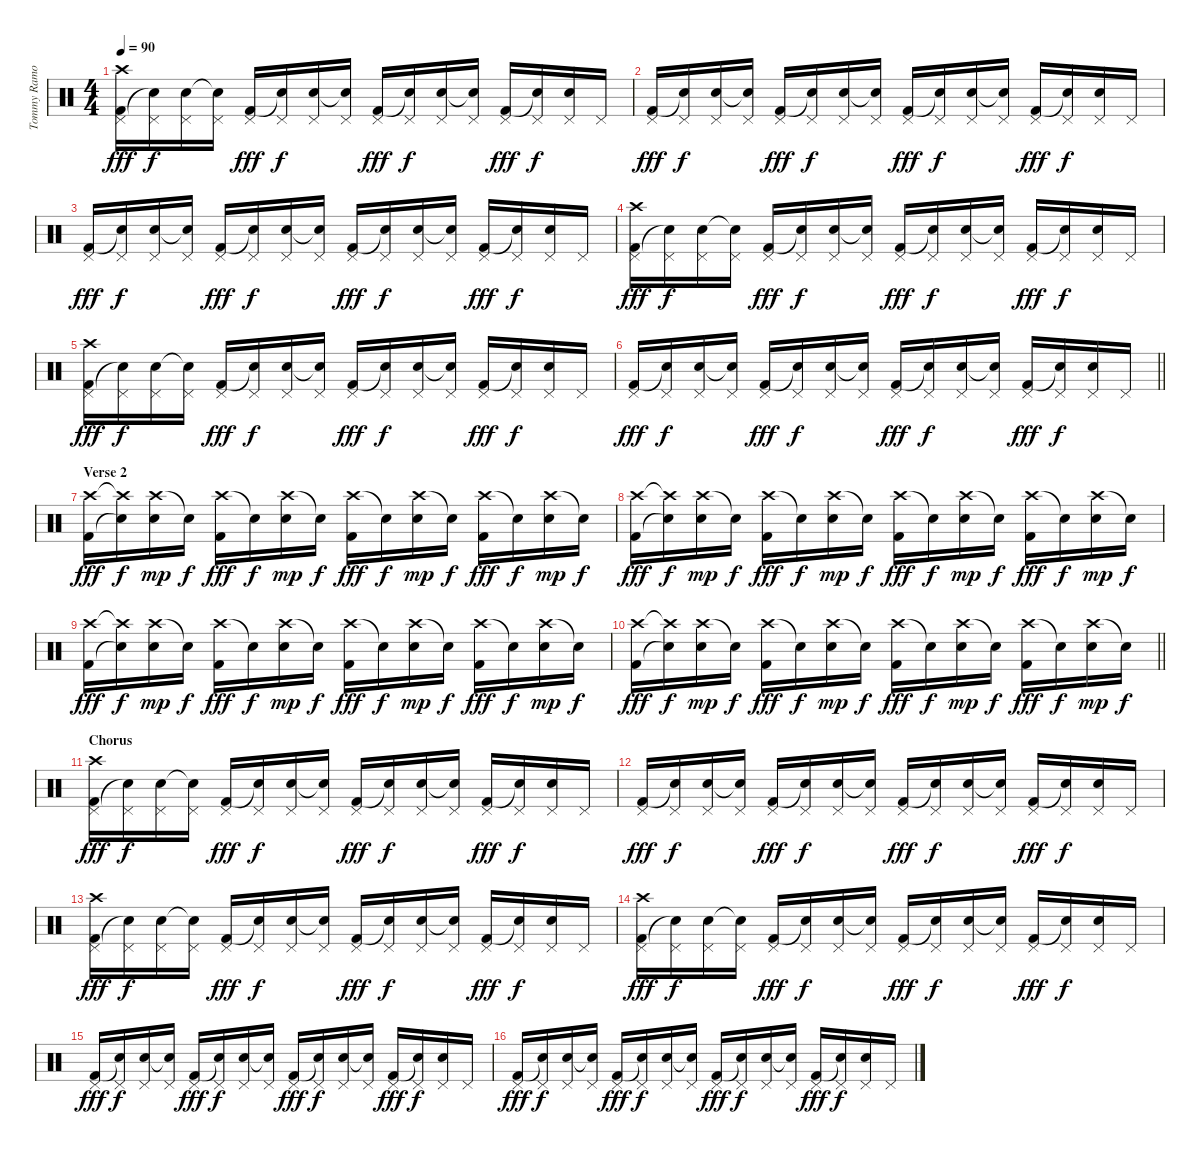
\track ("Tommy Ramone - Drums" "Tommy Ramo") {instrument percussion}
\staff {score}
\articulation defaults
\ts (4 4)
\tempo 90
\clef neutral
\ks c
("Crash high (hit)" "Pedal Hi-Hat (hit)" "Kick (hit) 2").16{dy fff} ("Pedal Hi-Hat (hit)" "Snare (hit)"{t}).16{dy f} ("Pedal Hi-Hat (hit)" "Electric Snare (hit)").16 ("Pedal Hi-Hat (hit)" "Snare (hit)"{t}).16 ("Pedal Hi-Hat (hit)" "Kick (hit) 2").16{dy fff} ("Pedal Hi-Hat (hit)" "Snare (hit)"{t}).16{dy f} ("Pedal Hi-Hat (hit)" "Electric Snare (hit)").16 ("Pedal Hi-Hat (hit)" "Snare (hit)"{t}).16 ("Pedal Hi-Hat (hit)" "Kick (hit) 2").16{dy fff} ("Pedal Hi-Hat (hit)" "Snare (hit)"{t}).16{dy f} ("Pedal Hi-Hat (hit)" "Electric Snare (hit)").16 ("Pedal Hi-Hat (hit)" "Snare (hit)"{t}).16 ("Pedal Hi-Hat (hit)" "Kick (hit) 2").16{dy fff} ("Pedal Hi-Hat (hit)" "Snare (hit)"{t}).16{dy f} ("Pedal Hi-Hat (hit)" "Electric Snare (hit)").16 "Pedal Hi-Hat (hit)".16 |
("Pedal Hi-Hat (hit)" "Kick (hit) 2").16{dy fff} ("Pedal Hi-Hat (hit)" "Snare (hit)"{t}).16{dy f} ("Pedal Hi-Hat (hit)" "Electric Snare (hit)").16 ("Pedal Hi-Hat (hit)" "Snare (hit)"{t}).16 ("Pedal Hi-Hat (hit)" "Kick (hit) 2").16{dy fff} ("Pedal Hi-Hat (hit)" "Snare (hit)"{t}).16{dy f} ("Pedal Hi-Hat (hit)" "Electric Snare (hit)").16 ("Pedal Hi-Hat (hit)" "Snare (hit)"{t}).16 ("Pedal Hi-Hat (hit)" "Kick (hit) 2").16{dy fff} ("Pedal Hi-Hat (hit)" "Snare (hit)"{t}).16{dy f} ("Pedal Hi-Hat (hit)" "Electric Snare (hit)").16 ("Pedal Hi-Hat (hit)" "Snare (hit)"{t}).16 ("Pedal Hi-Hat (hit)" "Kick (hit) 2").16{dy fff} ("Pedal Hi-Hat (hit)" "Snare (hit)"{t}).16{dy f} ("Pedal Hi-Hat (hit)" "Electric Snare (hit)").16 "Pedal Hi-Hat (hit)".16 |
("Pedal Hi-Hat (hit)" "Kick (hit) 2").16{dy fff} ("Pedal Hi-Hat (hit)" "Snare (hit)"{t}).16{dy f} ("Pedal Hi-Hat (hit)" "Electric Snare (hit)").16 ("Pedal Hi-Hat (hit)" "Snare (hit)"{t}).16 ("Pedal Hi-Hat (hit)" "Kick (hit) 2").16{dy fff} ("Pedal Hi-Hat (hit)" "Snare (hit)"{t}).16{dy f} ("Pedal Hi-Hat (hit)" "Electric Snare (hit)").16 ("Pedal Hi-Hat (hit)" "Snare (hit)"{t}).16 ("Pedal Hi-Hat (hit)" "Kick (hit) 2").16{dy fff} ("Pedal Hi-Hat (hit)" "Snare (hit)"{t}).16{dy f} ("Pedal Hi-Hat (hit)" "Electric Snare (hit)").16 ("Pedal Hi-Hat (hit)" "Snare (hit)"{t}).16 ("Pedal Hi-Hat (hit)" "Kick (hit) 2").16{dy fff} ("Pedal Hi-Hat (hit)" "Snare (hit)"{t}).16{dy f} ("Pedal Hi-Hat (hit)" "Electric Snare (hit)").16 "Pedal Hi-Hat (hit)".16 |
("Crash high (hit)" "Pedal Hi-Hat (hit)" "Kick (hit) 2").16{dy fff} ("Pedal Hi-Hat (hit)" "Snare (hit)"{t}).16{dy f} ("Pedal Hi-Hat (hit)" "Electric Snare (hit)").16 ("Pedal Hi-Hat (hit)" "Snare (hit)"{t}).16 ("Pedal Hi-Hat (hit)" "Kick (hit) 2").16{dy fff} ("Pedal Hi-Hat (hit)" "Snare (hit)"{t}).16{dy f} ("Pedal Hi-Hat (hit)" "Electric Snare (hit)").16 ("Pedal Hi-Hat (hit)" "Snare (hit)"{t}).16 ("Pedal Hi-Hat (hit)" "Kick (hit) 2").16{dy fff} ("Pedal Hi-Hat (hit)" "Snare (hit)"{t}).16{dy f} ("Pedal Hi-Hat (hit)" "Electric Snare (hit)").16 ("Pedal Hi-Hat (hit)" "Snare (hit)"{t}).16 ("Pedal Hi-Hat (hit)" "Kick (hit) 2").16{dy fff} ("Pedal Hi-Hat (hit)" "Snare (hit)"{t}).16{dy f} ("Pedal Hi-Hat (hit)" "Electric Snare (hit)").16 "Pedal Hi-Hat (hit)".16 |
("Crash high (hit)" "Pedal Hi-Hat (hit)" "Kick (hit) 2").16{dy fff} ("Pedal Hi-Hat (hit)" "Snare (hit)"{t}).16{dy f} ("Pedal Hi-Hat (hit)" "Electric Snare (hit)").16 ("Pedal Hi-Hat (hit)" "Snare (hit)"{t}).16 ("Pedal Hi-Hat (hit)" "Kick (hit) 2").16{dy fff} ("Pedal Hi-Hat (hit)" "Snare (hit)"{t}).16{dy f} ("Pedal Hi-Hat (hit)" "Electric Snare (hit)").16 ("Pedal Hi-Hat (hit)" "Snare (hit)"{t}).16 ("Pedal Hi-Hat (hit)" "Kick (hit) 2").16{dy fff} ("Pedal Hi-Hat (hit)" "Snare (hit)"{t}).16{dy f} ("Pedal Hi-Hat (hit)" "Electric Snare (hit)").16 ("Pedal Hi-Hat (hit)" "Snare (hit)"{t}).16 ("Pedal Hi-Hat (hit)" "Kick (hit) 2").16{dy fff} ("Pedal Hi-Hat (hit)" "Snare (hit)"{t}).16{dy f} ("Pedal Hi-Hat (hit)" "Electric Snare (hit)").16 "Pedal Hi-Hat (hit)".16 |
\barLineRight lightlight
("Pedal Hi-Hat (hit)" "Kick (hit) 2").16{dy fff} ("Pedal Hi-Hat (hit)" "Snare (hit)"{t}).16{dy f} ("Pedal Hi-Hat (hit)" "Electric Snare (hit)").16 ("Pedal Hi-Hat (hit)" "Snare (hit)"{t}).16 ("Pedal Hi-Hat (hit)" "Kick (hit) 2").16{dy fff} ("Pedal Hi-Hat (hit)" "Snare (hit)"{t}).16{dy f} ("Pedal Hi-Hat (hit)" "Electric Snare (hit)").16 ("Pedal Hi-Hat (hit)" "Snare (hit)"{t}).16 ("Pedal Hi-Hat (hit)" "Kick (hit) 2").16{dy fff} ("Pedal Hi-Hat (hit)" "Snare (hit)"{t}).16{dy f} ("Pedal Hi-Hat (hit)" "Electric Snare (hit)").16 ("Pedal Hi-Hat (hit)" "Snare (hit)"{t}).16 ("Pedal Hi-Hat (hit)" "Kick (hit) 2").16{dy fff} ("Pedal Hi-Hat (hit)" "Snare (hit)"{t}).16{dy f} ("Pedal Hi-Hat (hit)" "Electric Snare (hit)").16 "Pedal Hi-Hat (hit)".16 |
\section ("" "Verse 2")
("Crash high (hit)" "Kick (hit) 2").16{dy fff} ("Crash high (hit)"{t} "Snare (hit)"{t}).16{dy f} ("Crash high (hit)" "Electric Snare (hit)").16{dy mp} "Snare (hit)"{t}.16{dy f} ("Crash high (hit)" "Kick (hit) 2").16{dy fff} "Snare (hit)"{t}.16{dy f} ("Crash high (hit)" "Electric Snare (hit)").16{dy mp} "Snare (hit)"{t}.16{dy f} ("Crash high (hit)" "Kick (hit) 2").16{dy fff} "Snare (hit)"{t}.16{dy f} ("Crash high (hit)" "Electric Snare (hit)").16{dy mp} "Snare (hit)"{t}.16{dy f} ("Crash high (hit)" "Kick (hit) 2").16{dy fff} "Snare (hit)"{t}.16{dy f} ("Crash high (hit)" "Electric Snare (hit)").16{dy mp} "Snare (hit)"{t}.16{dy f} |
("Crash high (hit)" "Kick (hit) 2").16{dy fff} ("Crash high (hit)"{t} "Snare (hit)"{t}).16{dy f} ("Crash high (hit)" "Electric Snare (hit)").16{dy mp} "Snare (hit)"{t}.16{dy f} ("Crash high (hit)" "Kick (hit) 2").16{dy fff} "Snare (hit)"{t}.16{dy f} ("Crash high (hit)" "Electric Snare (hit)").16{dy mp} "Snare (hit)"{t}.16{dy f} ("Crash high (hit)" "Kick (hit) 2").16{dy fff} "Snare (hit)"{t}.16{dy f} ("Crash high (hit)" "Electric Snare (hit)").16{dy mp} "Snare (hit)"{t}.16{dy f} ("Crash high (hit)" "Kick (hit) 2").16{dy fff} "Snare (hit)"{t}.16{dy f} ("Crash high (hit)" "Electric Snare (hit)").16{dy mp} "Snare (hit)"{t}.16{dy f} |
("Crash high (hit)" "Kick (hit) 2").16{dy fff} ("Crash high (hit)"{t} "Snare (hit)"{t}).16{dy f} ("Crash high (hit)" "Electric Snare (hit)").16{dy mp} "Snare (hit)"{t}.16{dy f} ("Crash high (hit)" "Kick (hit) 2").16{dy fff} "Snare (hit)"{t}.16{dy f} ("Crash high (hit)" "Electric Snare (hit)").16{dy mp} "Snare (hit)"{t}.16{dy f} ("Crash high (hit)" "Kick (hit) 2").16{dy fff} "Snare (hit)"{t}.16{dy f} ("Crash high (hit)" "Electric Snare (hit)").16{dy mp} "Snare (hit)"{t}.16{dy f} ("Crash high (hit)" "Kick (hit) 2").16{dy fff} "Snare (hit)"{t}.16{dy f} ("Crash high (hit)" "Electric Snare (hit)").16{dy mp} "Snare (hit)"{t}.16{dy f} |
\barLineRight lightlight
("Crash high (hit)" "Kick (hit) 2").16{dy fff} ("Crash high (hit)"{t} "Snare (hit)"{t}).16{dy f} ("Crash high (hit)" "Electric Snare (hit)").16{dy mp} "Snare (hit)"{t}.16{dy f} ("Crash high (hit)" "Kick (hit) 2").16{dy fff} "Snare (hit)"{t}.16{dy f} ("Crash high (hit)" "Electric Snare (hit)").16{dy mp} "Snare (hit)"{t}.16{dy f} ("Crash high (hit)" "Kick (hit) 2").16{dy fff} "Snare (hit)"{t}.16{dy f} ("Crash high (hit)" "Electric Snare (hit)").16{dy mp} "Snare (hit)"{t}.16{dy f} ("Crash high (hit)" "Kick (hit) 2").16{dy fff} "Snare (hit)"{t}.16{dy f} ("Crash high (hit)" "Electric Snare (hit)").16{dy mp} "Snare (hit)"{t}.16{dy f} |
\section ("" "Chorus")
("Crash high (hit)" "Pedal Hi-Hat (hit)" "Kick (hit) 2").16{dy fff} ("Pedal Hi-Hat (hit)" "Snare (hit)"{t}).16{dy f} ("Pedal Hi-Hat (hit)" "Electric Snare (hit)").16 ("Pedal Hi-Hat (hit)" "Snare (hit)"{t}).16 ("Pedal Hi-Hat (hit)" "Kick (hit) 2").16{dy fff} ("Pedal Hi-Hat (hit)" "Snare (hit)"{t}).16{dy f} ("Pedal Hi-Hat (hit)" "Electric Snare (hit)").16 ("Pedal Hi-Hat (hit)" "Snare (hit)"{t}).16 ("Pedal Hi-Hat (hit)" "Kick (hit) 2").16{dy fff} ("Pedal Hi-Hat (hit)" "Snare (hit)"{t}).16{dy f} ("Pedal Hi-Hat (hit)" "Electric Snare (hit)").16 ("Pedal Hi-Hat (hit)" "Snare (hit)"{t}).16 ("Pedal Hi-Hat (hit)" "Kick (hit) 2").16{dy fff} ("Pedal Hi-Hat (hit)" "Snare (hit)"{t}).16{dy f} ("Pedal Hi-Hat (hit)" "Electric Snare (hit)").16 "Pedal Hi-Hat (hit)".16 |
("Pedal Hi-Hat (hit)" "Kick (hit) 2").16{dy fff} ("Pedal Hi-Hat (hit)" "Snare (hit)"{t}).16{dy f} ("Pedal Hi-Hat (hit)" "Electric Snare (hit)").16 ("Pedal Hi-Hat (hit)" "Snare (hit)"{t}).16 ("Pedal Hi-Hat (hit)" "Kick (hit) 2").16{dy fff} ("Pedal Hi-Hat (hit)" "Snare (hit)"{t}).16{dy f} ("Pedal Hi-Hat (hit)" "Electric Snare (hit)").16 ("Pedal Hi-Hat (hit)" "Snare (hit)"{t}).16 ("Pedal Hi-Hat (hit)" "Kick (hit) 2").16{dy fff} ("Pedal Hi-Hat (hit)" "Snare (hit)"{t}).16{dy f} ("Pedal Hi-Hat (hit)" "Electric Snare (hit)").16 ("Pedal Hi-Hat (hit)" "Snare (hit)"{t}).16 ("Pedal Hi-Hat (hit)" "Kick (hit) 2").16{dy fff} ("Pedal Hi-Hat (hit)" "Snare (hit)"{t}).16{dy f} ("Pedal Hi-Hat (hit)" "Electric Snare (hit)").16 "Pedal Hi-Hat (hit)".16 |
("Crash high (hit)" "Pedal Hi-Hat (hit)" "Kick (hit) 2").16{dy fff} ("Pedal Hi-Hat (hit)" "Snare (hit)"{t}).16{dy f} ("Pedal Hi-Hat (hit)" "Electric Snare (hit)").16 ("Pedal Hi-Hat (hit)" "Snare (hit)"{t}).16 ("Pedal Hi-Hat (hit)" "Kick (hit) 2").16{dy fff} ("Pedal Hi-Hat (hit)" "Snare (hit)"{t}).16{dy f} ("Pedal Hi-Hat (hit)" "Electric Snare (hit)").16 ("Pedal Hi-Hat (hit)" "Snare (hit)"{t}).16 ("Pedal Hi-Hat (hit)" "Kick (hit) 2").16{dy fff} ("Pedal Hi-Hat (hit)" "Snare (hit)"{t}).16{dy f} ("Pedal Hi-Hat (hit)" "Electric Snare (hit)").16 ("Pedal Hi-Hat (hit)" "Snare (hit)"{t}).16 ("Pedal Hi-Hat (hit)" "Kick (hit) 2").16{dy fff} ("Pedal Hi-Hat (hit)" "Snare (hit)"{t}).16{dy f} ("Pedal Hi-Hat (hit)" "Electric Snare (hit)").16 "Pedal Hi-Hat (hit)".16 |
("Crash high (hit)" "Pedal Hi-Hat (hit)" "Kick (hit) 2").16{dy fff} ("Pedal Hi-Hat (hit)" "Snare (hit)"{t}).16{dy f} ("Pedal Hi-Hat (hit)" "Electric Snare (hit)").16 ("Pedal Hi-Hat (hit)" "Snare (hit)"{t}).16 ("Pedal Hi-Hat (hit)" "Kick (hit) 2").16{dy fff} ("Pedal Hi-Hat (hit)" "Snare (hit)"{t}).16{dy f} ("Pedal Hi-Hat (hit)" "Electric Snare (hit)").16 ("Pedal Hi-Hat (hit)" "Snare (hit)"{t}).16 ("Pedal Hi-Hat (hit)" "Kick (hit) 2").16{dy fff} ("Pedal Hi-Hat (hit)" "Snare (hit)"{t}).16{dy f} ("Pedal Hi-Hat (hit)" "Electric Snare (hit)").16 ("Pedal Hi-Hat (hit)" "Snare (hit)"{t}).16 ("Pedal Hi-Hat (hit)" "Kick (hit) 2").16{dy fff} ("Pedal Hi-Hat (hit)" "Snare (hit)"{t}).16{dy f} ("Pedal Hi-Hat (hit)" "Electric Snare (hit)").16 "Pedal Hi-Hat (hit)".16 |
("Pedal Hi-Hat (hit)" "Kick (hit) 2").16{dy fff} ("Pedal Hi-Hat (hit)" "Snare (hit)"{t}).16{dy f} ("Pedal Hi-Hat (hit)" "Electric Snare (hit)").16 ("Pedal Hi-Hat (hit)" "Snare (hit)"{t}).16 ("Pedal Hi-Hat (hit)" "Kick (hit) 2").16{dy fff} ("Pedal Hi-Hat (hit)" "Snare (hit)"{t}).16{dy f} ("Pedal Hi-Hat (hit)" "Electric Snare (hit)").16 ("Pedal Hi-Hat (hit)" "Snare (hit)"{t}).16 ("Pedal Hi-Hat (hit)" "Kick (hit) 2").16{dy fff} ("Pedal Hi-Hat (hit)" "Snare (hit)"{t}).16{dy f} ("Pedal Hi-Hat (hit)" "Electric Snare (hit)").16 ("Pedal Hi-Hat (hit)" "Snare (hit)"{t}).16 ("Pedal Hi-Hat (hit)" "Kick (hit) 2").16{dy fff} ("Pedal Hi-Hat (hit)" "Snare (hit)"{t}).16{dy f} ("Pedal Hi-Hat (hit)" "Electric Snare (hit)").16 "Pedal Hi-Hat (hit)".16 |
("Pedal Hi-Hat (hit)" "Kick (hit) 2").16{dy fff} ("Pedal Hi-Hat (hit)" "Snare (hit)"{t}).16{dy f} ("Pedal Hi-Hat (hit)" "Electric Snare (hit)").16 ("Pedal Hi-Hat (hit)" "Snare (hit)"{t}).16 ("Pedal Hi-Hat (hit)" "Kick (hit) 2").16{dy fff} ("Pedal Hi-Hat (hit)" "Snare (hit)"{t}).16{dy f} ("Pedal Hi-Hat (hit)" "Electric Snare (hit)").16 ("Pedal Hi-Hat (hit)" "Snare (hit)"{t}).16 ("Pedal Hi-Hat (hit)" "Kick (hit) 2").16{dy fff} ("Pedal Hi-Hat (hit)" "Snare (hit)"{t}).16{dy f} ("Pedal Hi-Hat (hit)" "Electric Snare (hit)").16 ("Pedal Hi-Hat (hit)" "Snare (hit)"{t}).16 ("Pedal Hi-Hat (hit)" "Kick (hit) 2").16{dy fff} ("Pedal Hi-Hat (hit)" "Snare (hit)"{t}).16{dy f} ("Pedal Hi-Hat (hit)" "Electric Snare (hit)").16 "Pedal Hi-Hat (hit)".16
